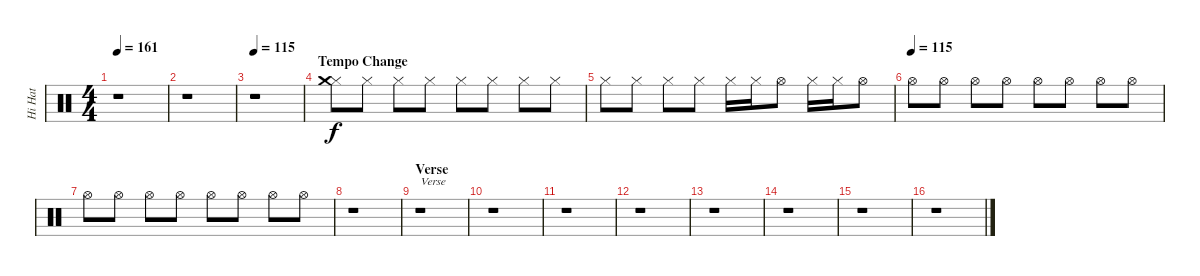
\track ("Hi Hat" "Hi Hat") {instrument percussion}
\staff {score}
\articulation defaults
\ts (4 4)
\tempo 161
\clef neutral
\ks c
r.1{dy f} |
r.1 |
\tempo 115
r.1 |
\section ("" "Tempo Change")
("Hi-Hat (closed)" "Crash medium (hit)").8 "Hi-Hat (closed)".8 "Hi-Hat (closed)".8 "Hi-Hat (closed)".8 "Hi-Hat (closed)".8 "Hi-Hat (closed)".8 "Hi-Hat (closed)".8 "Hi-Hat (closed)".8 |
"Hi-Hat (closed)".8 "Hi-Hat (closed)".8 "Hi-Hat (closed)".8 "Hi-Hat (closed)".8 "Hi-Hat (closed)".16 "Hi-Hat (closed)".16 "Hi-Hat (open)".8 "Hi-Hat (closed)".16 "Hi-Hat (closed)".16 "Hi-Hat (open)".8 |
\tempo (115)
"Hi-Hat (open)".8 "Hi-Hat (open)".8 "Hi-Hat (open)".8 "Hi-Hat (open)".8 "Hi-Hat (open)".8 "Hi-Hat (open)".8 "Hi-Hat (open)".8 "Hi-Hat (open)".8 |
"Hi-Hat (open)".8 "Hi-Hat (open)".8 "Hi-Hat (open)".8 "Hi-Hat (open)".8 "Hi-Hat (open)".8 "Hi-Hat (open)".8 "Hi-Hat (open)".8 "Hi-Hat (open)".8 |
r.1 |
\section ("" "Verse")
r.1{txt "Verse"} |
r.1 |
r.1 |
r.1 |
r.1 |
r.1 |
r.1 |
r.1
